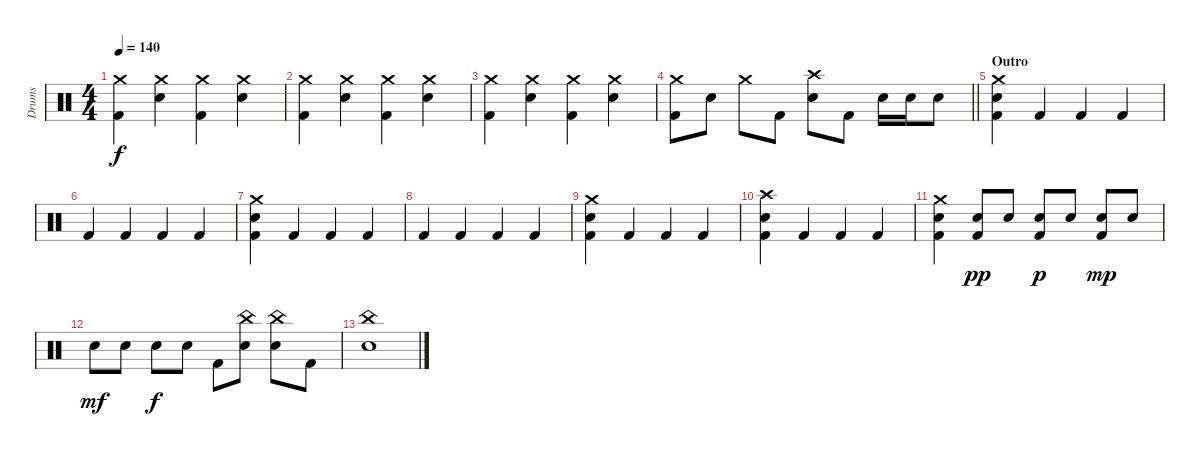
\track ("Drums" "Drums") {instrument percussion}
\staff {score}
\articulation defaults
\ts (4 4)
\tempo 140
\clef neutral
\ks c
("Crash medium (hit)" "Kick (hit) 2").4{dy f} ("Crash medium (hit)" "Snare (hit) 2").4 ("Crash medium (hit)" "Kick (hit) 2").4 ("Crash medium (hit)" "Snare (hit) 2").4 |
("Crash medium (hit)" "Kick (hit) 2").4 ("Crash medium (hit)" "Snare (hit) 2").4 ("Crash medium (hit)" "Kick (hit) 2").4 ("Crash medium (hit)" "Snare (hit) 2").4 |
("Crash medium (hit)" "Kick (hit) 2").4 ("Crash medium (hit)" "Snare (hit) 2").4 ("Crash medium (hit)" "Kick (hit) 2").4 ("Crash medium (hit)" "Snare (hit) 2").4 |
\barLineRight lightlight
("Crash medium (hit)" "Kick (hit) 2").8 "Snare (hit) 2".8 "Crash medium (hit)".8 "Kick (hit) 2".8 ("Crash high (hit)" "Snare (hit) 2").8 "Kick (hit) 2".8 "Snare (hit) 2".16 "Snare (hit) 2".16 "Snare (hit) 2".8 |
\section ("" "Outro")
("Crash medium (hit)" "Snare (hit) 2" "Kick (hit) 2").4 "Kick (hit) 2".4 "Kick (hit) 2".4 "Kick (hit) 2".4 |
"Kick (hit) 2".4 "Kick (hit) 2".4 "Kick (hit) 2".4 "Kick (hit) 2".4 |
("Crash medium (hit)" "Snare (hit) 2" "Kick (hit) 2").4 "Kick (hit) 2".4 "Kick (hit) 2".4 "Kick (hit) 2".4 |
"Kick (hit) 2".4 "Kick (hit) 2".4 "Kick (hit) 2".4 "Kick (hit) 2".4 |
("Crash medium (hit)" "Snare (hit) 2" "Kick (hit) 2").4 "Kick (hit) 2".4 "Kick (hit) 2".4 "Kick (hit) 2".4 |
("Crash high (hit)" "Snare (hit) 2" "Kick (hit) 2").4 "Kick (hit) 2".4 "Kick (hit) 2".4 "Kick (hit) 2".4 |
("Crash medium (hit)" "Snare (hit) 2" "Kick (hit) 2").4 ("Snare (hit) 2" "Kick (hit) 2").8{dy pp} "Snare (hit) 2".8 ("Snare (hit) 2" "Kick (hit) 2").8{dy p} "Snare (hit) 2".8 ("Snare (hit) 2" "Kick (hit) 2").8{dy mp} "Snare (hit) 2".8 |
"Snare (hit) 2".8{dy mf} "Snare (hit) 2".8 "Snare (hit) 2".8{dy f} "Snare (hit) 2".8 "Kick (hit) 2".8 ("China (hit)" "Snare (hit) 2").8 ("China (hit)" "Snare (hit) 2").8 "Kick (hit) 2".8 |
("China (hit)" "Snare (hit) 2").1
